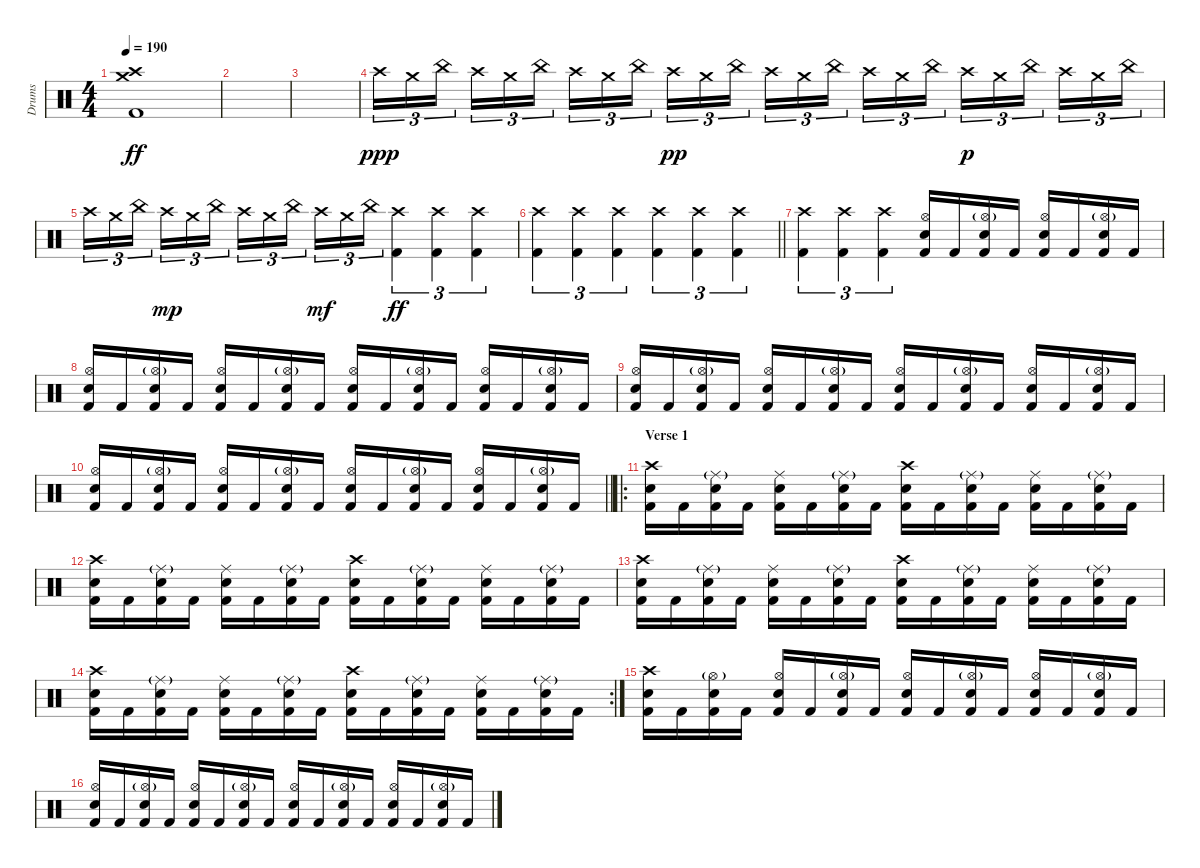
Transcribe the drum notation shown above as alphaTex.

\track ("Drums" "Drums") {instrument percussion}
\staff {score}
\articulation defaults
\ts (4 4)
\tempo 190
\clef neutral
\ks c
("Crash medium (hit)" "Crash high (hit)" "Kick (hit) 2").1{dy ff} |
|
|
"Crash high (hit)".16{tu (3 2) dy ppp} "Crash medium (hit)".16{tu (3 2)} "China (hit)".16{tu (3 2)} "Crash high (hit)".16{tu (3 2)} "Crash medium (hit)".16{tu (3 2)} "China (hit)".16{tu (3 2)} "Crash high (hit)".16{tu (3 2)} "Crash medium (hit)".16{tu (3 2)} "China (hit)".16{tu (3 2)} "Crash high (hit)".16{tu (3 2) dy pp} "Crash medium (hit)".16{tu (3 2)} "China (hit)".16{tu (3 2)} "Crash high (hit)".16{tu (3 2)} "Crash medium (hit)".16{tu (3 2)} "China (hit)".16{tu (3 2)} "Crash high (hit)".16{tu (3 2)} "Crash medium (hit)".16{tu (3 2)} "China (hit)".16{tu (3 2)} "Crash high (hit)".16{tu (3 2) dy p} "Crash medium (hit)".16{tu (3 2)} "China (hit)".16{tu (3 2)} "Crash high (hit)".16{tu (3 2)} "Crash medium (hit)".16{tu (3 2)} "China (hit)".16{tu (3 2)} |
"Crash high (hit)".16{tu (3 2)} "Crash medium (hit)".16{tu (3 2)} "China (hit)".16{tu (3 2)} "Crash high (hit)".16{tu (3 2) dy mp} "Crash medium (hit)".16{tu (3 2)} "China (hit)".16{tu (3 2)} "Crash high (hit)".16{tu (3 2)} "Crash medium (hit)".16{tu (3 2)} "China (hit)".16{tu (3 2)} "Crash high (hit)".16{tu (3 2) dy mf} "Crash medium (hit)".16{tu (3 2)} "China (hit)".16{tu (3 2)} ("Crash high (hit)" "Kick (hit) 2").4{tu (3 2) dy ff} ("Crash high (hit)" "Kick (hit) 2").4{tu (3 2)} ("Crash high (hit)" "Kick (hit) 2").4{tu (3 2)} |
\barLineRight lightlight
("Crash high (hit)" "Kick (hit) 2").4{tu (3 2)} ("Crash high (hit)" "Kick (hit) 2").4{tu (3 2)} ("Crash high (hit)" "Kick (hit) 2").4{tu (3 2)} ("Crash high (hit)" "Kick (hit) 2").4{tu (3 2)} ("Crash high (hit)" "Kick (hit) 2").4{tu (3 2)} ("Crash high (hit)" "Kick (hit) 2").4{tu (3 2)} |
\section ("" "")
("Crash high (hit)" "Kick (hit) 2").4{tu (3 2)} ("Crash high (hit)" "Kick (hit) 2").4{tu (3 2)} ("Crash high (hit)" "Kick (hit) 2").4{tu (3 2)} ("Hi-Hat (open)" "Electric Snare (hit)" "Kick (hit) 2").16 "Kick (hit) 2".16 ("Hi-Hat (open)"{g} "Electric Snare (hit)" "Kick (hit) 2").16 "Kick (hit) 2".16 ("Hi-Hat (open)" "Electric Snare (hit)" "Kick (hit) 2").16 "Kick (hit) 2".16 ("Hi-Hat (open)"{g} "Electric Snare (hit)" "Kick (hit) 2").16 "Kick (hit) 2".16 |
("Hi-Hat (open)" "Electric Snare (hit)" "Kick (hit) 2").16 "Kick (hit) 2".16 ("Hi-Hat (open)"{g} "Electric Snare (hit)" "Kick (hit) 2").16 "Kick (hit) 2".16 ("Hi-Hat (open)" "Electric Snare (hit)" "Kick (hit) 2").16 "Kick (hit) 2".16 ("Hi-Hat (open)"{g} "Electric Snare (hit)" "Kick (hit) 2").16 "Kick (hit) 2".16 ("Hi-Hat (open)" "Electric Snare (hit)" "Kick (hit) 2").16 "Kick (hit) 2".16 ("Hi-Hat (open)"{g} "Electric Snare (hit)" "Kick (hit) 2").16 "Kick (hit) 2".16 ("Hi-Hat (open)" "Electric Snare (hit)" "Kick (hit) 2").16 "Kick (hit) 2".16 ("Hi-Hat (open)"{g} "Electric Snare (hit)" "Kick (hit) 2").16 "Kick (hit) 2".16 |
("Hi-Hat (open)" "Electric Snare (hit)" "Kick (hit) 2").16 "Kick (hit) 2".16 ("Hi-Hat (open)"{g} "Electric Snare (hit)" "Kick (hit) 2").16 "Kick (hit) 2".16 ("Hi-Hat (open)" "Electric Snare (hit)" "Kick (hit) 2").16 "Kick (hit) 2".16 ("Hi-Hat (open)"{g} "Electric Snare (hit)" "Kick (hit) 2").16 "Kick (hit) 2".16 ("Hi-Hat (open)" "Electric Snare (hit)" "Kick (hit) 2").16 "Kick (hit) 2".16 ("Hi-Hat (open)"{g} "Electric Snare (hit)" "Kick (hit) 2").16 "Kick (hit) 2".16 ("Hi-Hat (open)" "Electric Snare (hit)" "Kick (hit) 2").16 "Kick (hit) 2".16 ("Hi-Hat (open)"{g} "Electric Snare (hit)" "Kick (hit) 2").16 "Kick (hit) 2".16 |
\barLineRight lightlight
("Hi-Hat (open)" "Electric Snare (hit)" "Kick (hit) 2").16 "Kick (hit) 2".16 ("Hi-Hat (open)"{g} "Electric Snare (hit)" "Kick (hit) 2").16 "Kick (hit) 2".16 ("Hi-Hat (open)" "Electric Snare (hit)" "Kick (hit) 2").16 "Kick (hit) 2".16 ("Hi-Hat (open)"{g} "Electric Snare (hit)" "Kick (hit) 2").16 "Kick (hit) 2".16 ("Hi-Hat (open)" "Electric Snare (hit)" "Kick (hit) 2").16 "Kick (hit) 2".16 ("Hi-Hat (open)"{g} "Electric Snare (hit)" "Kick (hit) 2").16 "Kick (hit) 2".16 ("Hi-Hat (open)" "Electric Snare (hit)" "Kick (hit) 2").16 "Kick (hit) 2".16 ("Hi-Hat (open)"{g} "Electric Snare (hit)" "Kick (hit) 2").16 "Kick (hit) 2".16 |
\ro
\section ("" "Verse 1")
("Crash high (hit)" "Electric Snare (hit)" "Kick (hit) 2").16 "Kick (hit) 2".16 ("Ride (middle)"{g} "Electric Snare (hit)" "Kick (hit) 2").16 "Kick (hit) 2".16 ("Ride (middle)" "Electric Snare (hit)" "Kick (hit) 2").16 "Kick (hit) 2".16 ("Ride (middle)"{g} "Electric Snare (hit)" "Kick (hit) 2").16 "Kick (hit) 2".16 ("Crash high (hit)" "Electric Snare (hit)" "Kick (hit) 2").16 "Kick (hit) 2".16 ("Ride (middle)"{g} "Electric Snare (hit)" "Kick (hit) 2").16 "Kick (hit) 2".16 ("Ride (middle)" "Electric Snare (hit)" "Kick (hit) 2").16 "Kick (hit) 2".16 ("Ride (middle)"{g} "Electric Snare (hit)" "Kick (hit) 2").16 "Kick (hit) 2".16 |
("Crash high (hit)" "Electric Snare (hit)" "Kick (hit) 2").16 "Kick (hit) 2".16 ("Ride (middle)"{g} "Electric Snare (hit)" "Kick (hit) 2").16 "Kick (hit) 2".16 ("Ride (middle)" "Electric Snare (hit)" "Kick (hit) 2").16 "Kick (hit) 2".16 ("Ride (middle)"{g} "Electric Snare (hit)" "Kick (hit) 2").16 "Kick (hit) 2".16 ("Crash high (hit)" "Electric Snare (hit)" "Kick (hit) 2").16 "Kick (hit) 2".16 ("Ride (middle)"{g} "Electric Snare (hit)" "Kick (hit) 2").16 "Kick (hit) 2".16 ("Ride (middle)" "Electric Snare (hit)" "Kick (hit) 2").16 "Kick (hit) 2".16 ("Ride (middle)"{g} "Electric Snare (hit)" "Kick (hit) 2").16 "Kick (hit) 2".16 |
("Crash high (hit)" "Electric Snare (hit)" "Kick (hit) 2").16 "Kick (hit) 2".16 ("Ride (middle)"{g} "Electric Snare (hit)" "Kick (hit) 2").16 "Kick (hit) 2".16 ("Ride (middle)" "Electric Snare (hit)" "Kick (hit) 2").16 "Kick (hit) 2".16 ("Ride (middle)"{g} "Electric Snare (hit)" "Kick (hit) 2").16 "Kick (hit) 2".16 ("Crash high (hit)" "Electric Snare (hit)" "Kick (hit) 2").16 "Kick (hit) 2".16 ("Ride (middle)"{g} "Electric Snare (hit)" "Kick (hit) 2").16 "Kick (hit) 2".16 ("Ride (middle)" "Electric Snare (hit)" "Kick (hit) 2").16 "Kick (hit) 2".16 ("Ride (middle)"{g} "Electric Snare (hit)" "Kick (hit) 2").16 "Kick (hit) 2".16 |
\rc 2
("Crash high (hit)" "Electric Snare (hit)" "Kick (hit) 2").16 "Kick (hit) 2".16 ("Ride (middle)"{g} "Electric Snare (hit)" "Kick (hit) 2").16 "Kick (hit) 2".16 ("Ride (middle)" "Electric Snare (hit)" "Kick (hit) 2").16 "Kick (hit) 2".16 ("Ride (middle)"{g} "Electric Snare (hit)" "Kick (hit) 2").16 "Kick (hit) 2".16 ("Crash high (hit)" "Electric Snare (hit)" "Kick (hit) 2").16 "Kick (hit) 2".16 ("Ride (middle)"{g} "Electric Snare (hit)" "Kick (hit) 2").16 "Kick (hit) 2".16 ("Ride (middle)" "Electric Snare (hit)" "Kick (hit) 2").16 "Kick (hit) 2".16 ("Ride (middle)"{g} "Electric Snare (hit)" "Kick (hit) 2").16 "Kick (hit) 2".16 |
("Crash high (hit)" "Electric Snare (hit)" "Kick (hit) 2").16 "Kick (hit) 2".16 ("Hi-Hat (open)"{g} "Electric Snare (hit)" "Kick (hit) 2").16 "Kick (hit) 2".16 ("Hi-Hat (open)" "Electric Snare (hit)" "Kick (hit) 2").16 "Kick (hit) 2".16 ("Hi-Hat (open)"{g} "Electric Snare (hit)" "Kick (hit) 2").16 "Kick (hit) 2".16 ("Hi-Hat (open)" "Electric Snare (hit)" "Kick (hit) 2").16 "Kick (hit) 2".16 ("Hi-Hat (open)"{g} "Electric Snare (hit)" "Kick (hit) 2").16 "Kick (hit) 2".16 ("Hi-Hat (open)" "Electric Snare (hit)" "Kick (hit) 2").16 "Kick (hit) 2".16 ("Hi-Hat (open)"{g} "Electric Snare (hit)" "Kick (hit) 2").16 "Kick (hit) 2".16 |
("Hi-Hat (open)" "Electric Snare (hit)" "Kick (hit) 2").16 "Kick (hit) 2".16 ("Hi-Hat (open)"{g} "Electric Snare (hit)" "Kick (hit) 2").16 "Kick (hit) 2".16 ("Hi-Hat (open)" "Electric Snare (hit)" "Kick (hit) 2").16 "Kick (hit) 2".16 ("Hi-Hat (open)"{g} "Electric Snare (hit)" "Kick (hit) 2").16 "Kick (hit) 2".16 ("Hi-Hat (open)" "Electric Snare (hit)" "Kick (hit) 2").16 "Kick (hit) 2".16 ("Hi-Hat (open)"{g} "Electric Snare (hit)" "Kick (hit) 2").16 "Kick (hit) 2".16 ("Hi-Hat (open)" "Electric Snare (hit)" "Kick (hit) 2").16 "Kick (hit) 2".16 ("Hi-Hat (open)"{g} "Electric Snare (hit)" "Kick (hit) 2").16 "Kick (hit) 2".16
